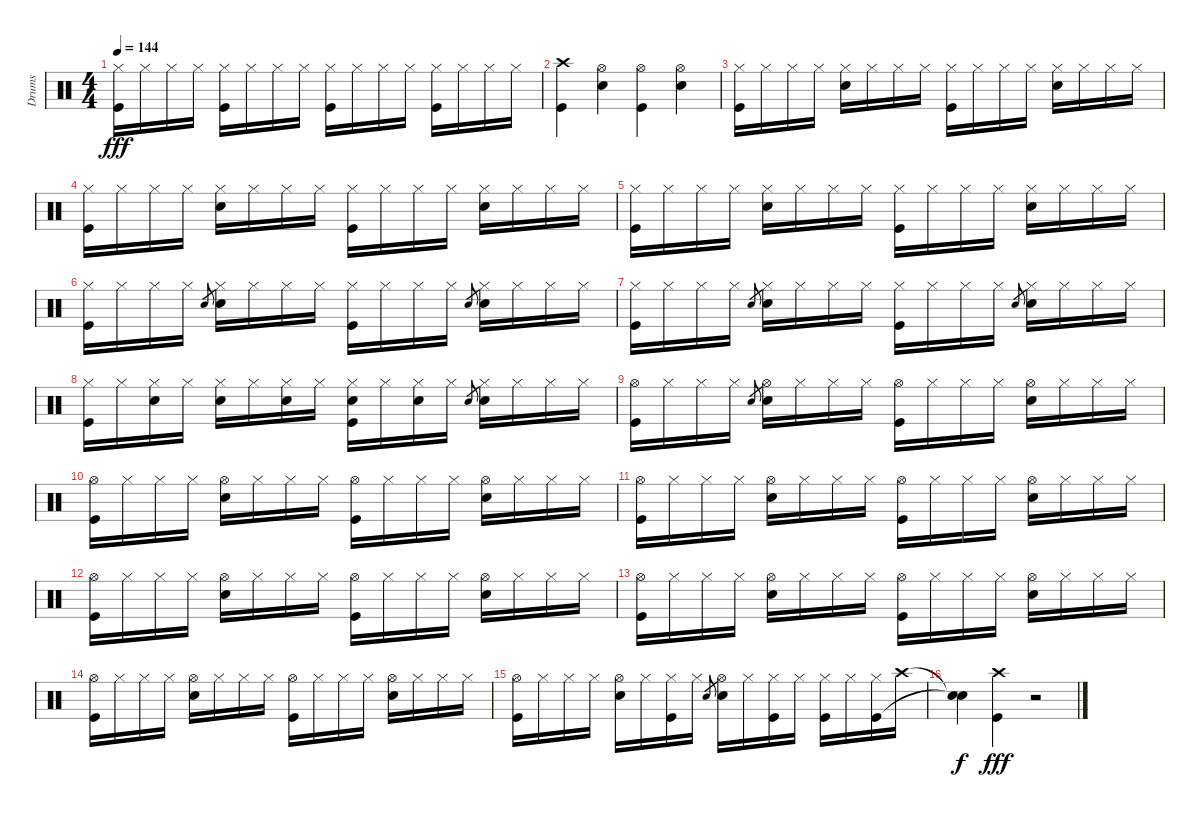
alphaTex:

\track ("Drums" "Drums") {instrument percussion}
\staff {score}
\articulation defaults
\ts (4 4)
\tempo 144
\clef neutral
\ks c
("Hi-Hat (closed)" "Kick (hit)").16{dy fff} "Hi-Hat (closed)".16 "Hi-Hat (closed)".16 "Hi-Hat (closed)".16 ("Hi-Hat (closed)" "Kick (hit)").16 "Hi-Hat (closed)".16 "Hi-Hat (closed)".16 "Hi-Hat (closed)".16 ("Hi-Hat (closed)" "Kick (hit)").16 "Hi-Hat (closed)".16 "Hi-Hat (closed)".16 "Hi-Hat (closed)".16 ("Hi-Hat (closed)" "Kick (hit)").16 "Hi-Hat (closed)".16 "Hi-Hat (closed)".16 "Hi-Hat (closed)".16 |
("Crash high (hit)" "Kick (hit)").4 ("Hi-Hat (open)" "Snare (hit) 2").4 ("Hi-Hat (open)" "Kick (hit)").4 ("Hi-Hat (open)" "Snare (hit) 2").4 |
("Hi-Hat (closed)" "Kick (hit)").16 "Hi-Hat (closed)".16 "Hi-Hat (closed)".16 "Hi-Hat (closed)".16 ("Hi-Hat (closed)" "Snare (hit) 2").16 "Hi-Hat (closed)".16 "Hi-Hat (closed)".16 "Hi-Hat (closed)".16 ("Hi-Hat (closed)" "Kick (hit)").16 "Hi-Hat (closed)".16 "Hi-Hat (closed)".16 "Hi-Hat (closed)".16 ("Hi-Hat (closed)" "Snare (hit) 2").16 "Hi-Hat (closed)".16 "Hi-Hat (closed)".16 "Hi-Hat (closed)".16 |
("Hi-Hat (closed)" "Kick (hit)").16 "Hi-Hat (closed)".16 "Hi-Hat (closed)".16 "Hi-Hat (closed)".16 ("Hi-Hat (closed)" "Snare (hit) 2").16 "Hi-Hat (closed)".16 "Hi-Hat (closed)".16 "Hi-Hat (closed)".16 ("Hi-Hat (closed)" "Kick (hit)").16 "Hi-Hat (closed)".16 "Hi-Hat (closed)".16 "Hi-Hat (closed)".16 ("Hi-Hat (closed)" "Snare (hit) 2").16 "Hi-Hat (closed)".16 "Hi-Hat (closed)".16 "Hi-Hat (closed)".16 |
("Hi-Hat (closed)" "Kick (hit)").16 "Hi-Hat (closed)".16 "Hi-Hat (closed)".16 "Hi-Hat (closed)".16 ("Hi-Hat (closed)" "Snare (hit) 2").16 "Hi-Hat (closed)".16 "Hi-Hat (closed)".16 "Hi-Hat (closed)".16 ("Hi-Hat (closed)" "Kick (hit)").16 "Hi-Hat (closed)".16 "Hi-Hat (closed)".16 "Hi-Hat (closed)".16 ("Hi-Hat (closed)" "Snare (hit) 2").16 "Hi-Hat (closed)".16 "Hi-Hat (closed)".16 "Hi-Hat (closed)".16 |
("Hi-Hat (closed)" "Kick (hit)").16 "Hi-Hat (closed)".16 "Hi-Hat (closed)".16 "Hi-Hat (closed)".16 "Snare (hit) 2".8{gr} ("Hi-Hat (closed)" "Snare (hit) 2").16 "Hi-Hat (closed)".16 "Hi-Hat (closed)".16 "Hi-Hat (closed)".16 ("Hi-Hat (closed)" "Kick (hit)").16 "Hi-Hat (closed)".16 "Hi-Hat (closed)".16 "Hi-Hat (closed)".16 "Snare (hit) 2".8{gr} ("Hi-Hat (closed)" "Snare (hit) 2").16 "Hi-Hat (closed)".16 "Hi-Hat (closed)".16 "Hi-Hat (closed)".16 |
("Hi-Hat (closed)" "Kick (hit)").16 "Hi-Hat (closed)".16 "Hi-Hat (closed)".16 "Hi-Hat (closed)".16 "Snare (hit) 2".8{gr} ("Hi-Hat (closed)" "Snare (hit) 2").16 "Hi-Hat (closed)".16 "Hi-Hat (closed)".16 "Hi-Hat (closed)".16 ("Hi-Hat (closed)" "Kick (hit)").16 "Hi-Hat (closed)".16 "Hi-Hat (closed)".16 "Hi-Hat (closed)".16 "Snare (hit) 2".8{gr} ("Hi-Hat (closed)" "Snare (hit) 2").16 "Hi-Hat (closed)".16 "Hi-Hat (closed)".16 "Hi-Hat (closed)".16 |
("Hi-Hat (closed)" "Kick (hit)").16 "Hi-Hat (closed)".16 ("Hi-Hat (closed)" "Snare (hit) 2").16 "Hi-Hat (closed)".16 ("Hi-Hat (closed)" "Snare (hit) 2").16 "Hi-Hat (closed)".16 ("Hi-Hat (closed)" "Snare (hit) 2").16 "Hi-Hat (closed)".16 ("Hi-Hat (closed)" "Snare (hit) 2" "Kick (hit)").16 "Hi-Hat (closed)".16 ("Hi-Hat (closed)" "Snare (hit) 2").16 "Hi-Hat (closed)".16 "Snare (hit) 2".8{gr} ("Hi-Hat (closed)" "Snare (hit) 2").16 "Hi-Hat (closed)".16 "Hi-Hat (closed)".16 "Hi-Hat (closed)".16 |
("Hi-Hat (open)" "Kick (hit)").16 "Hi-Hat (closed)".16 "Hi-Hat (closed)".16 "Hi-Hat (closed)".16 "Snare (hit) 2".8{gr} ("Hi-Hat (open)" "Snare (hit) 2").16 "Hi-Hat (closed)".16 "Hi-Hat (closed)".16 "Hi-Hat (closed)".16 ("Hi-Hat (open)" "Kick (hit)").16 "Hi-Hat (closed)".16 "Hi-Hat (closed)".16 "Hi-Hat (closed)".16 ("Hi-Hat (open)" "Snare (hit) 2").16 "Hi-Hat (closed)".16 "Hi-Hat (closed)".16 "Hi-Hat (closed)".16 |
("Hi-Hat (open)" "Kick (hit)").16 "Hi-Hat (closed)".16 "Hi-Hat (closed)".16 "Hi-Hat (closed)".16 ("Hi-Hat (open)" "Snare (hit) 2").16 "Hi-Hat (closed)".16 "Hi-Hat (closed)".16 "Hi-Hat (closed)".16 ("Hi-Hat (open)" "Kick (hit)").16 "Hi-Hat (closed)".16 "Hi-Hat (closed)".16 "Hi-Hat (closed)".16 ("Hi-Hat (open)" "Snare (hit) 2").16 "Hi-Hat (closed)".16 "Hi-Hat (closed)".16 "Hi-Hat (closed)".16 |
("Hi-Hat (open)" "Kick (hit)").16 "Hi-Hat (closed)".16 "Hi-Hat (closed)".16 "Hi-Hat (closed)".16 ("Hi-Hat (open)" "Snare (hit) 2").16 "Hi-Hat (closed)".16 "Hi-Hat (closed)".16 "Hi-Hat (closed)".16 ("Hi-Hat (open)" "Kick (hit)").16 "Hi-Hat (closed)".16 "Hi-Hat (closed)".16 "Hi-Hat (closed)".16 ("Hi-Hat (open)" "Snare (hit) 2").16 "Hi-Hat (closed)".16 "Hi-Hat (closed)".16 "Hi-Hat (closed)".16 |
("Hi-Hat (open)" "Kick (hit)").16 "Hi-Hat (closed)".16 "Hi-Hat (closed)".16 "Hi-Hat (closed)".16 ("Hi-Hat (open)" "Snare (hit) 2").16 "Hi-Hat (closed)".16 "Hi-Hat (closed)".16 "Hi-Hat (closed)".16 ("Hi-Hat (open)" "Kick (hit)").16 "Hi-Hat (closed)".16 "Hi-Hat (closed)".16 "Hi-Hat (closed)".16 ("Hi-Hat (open)" "Snare (hit) 2").16 "Hi-Hat (closed)".16 "Hi-Hat (closed)".16 "Hi-Hat (closed)".16 |
("Hi-Hat (open)" "Kick (hit)").16 "Hi-Hat (closed)".16 "Hi-Hat (closed)".16 "Hi-Hat (closed)".16 ("Hi-Hat (open)" "Snare (hit) 2").16 "Hi-Hat (closed)".16 "Hi-Hat (closed)".16 "Hi-Hat (closed)".16 ("Hi-Hat (open)" "Kick (hit)").16 "Hi-Hat (closed)".16 "Hi-Hat (closed)".16 "Hi-Hat (closed)".16 ("Hi-Hat (open)" "Snare (hit) 2").16 "Hi-Hat (closed)".16 "Hi-Hat (closed)".16 "Hi-Hat (closed)".16 |
("Hi-Hat (open)" "Kick (hit)").16 "Hi-Hat (closed)".16 "Hi-Hat (closed)".16 "Hi-Hat (closed)".16 ("Hi-Hat (open)" "Snare (hit) 2").16 "Hi-Hat (closed)".16 "Hi-Hat (closed)".16 "Hi-Hat (closed)".16 ("Hi-Hat (open)" "Kick (hit)").16 "Hi-Hat (closed)".16 "Hi-Hat (closed)".16 "Hi-Hat (closed)".16 ("Hi-Hat (open)" "Snare (hit) 2").16 "Hi-Hat (closed)".16 "Hi-Hat (closed)".16 "Hi-Hat (closed)".16 |
("Hi-Hat (open)" "Kick (hit)").16 "Hi-Hat (closed)".16 "Hi-Hat (closed)".16 "Hi-Hat (closed)".16 ("Hi-Hat (open)" "Snare (hit) 2").16 "Hi-Hat (closed)".16 ("Hi-Hat (closed)" "Kick (hit)").16 "Hi-Hat (closed)".16 "Snare (hit) 2".8{gr} ("Hi-Hat (open)" "Snare (hit) 2").16 "Hi-Hat (closed)".16 ("Hi-Hat (closed)" "Kick (hit)").16 "Hi-Hat (closed)".16 ("Hi-Hat (closed)" "Kick (hit)").16 "Hi-Hat (closed)".16 ("Hi-Hat (closed)" "Kick (hit)").16 "Crash high (hit)".16 |
("Snare (hit)"{t} "Snare (hit)"{t}).4{dy f} ("Crash high (hit)" "Kick (hit)").4{dy fff} r.2
